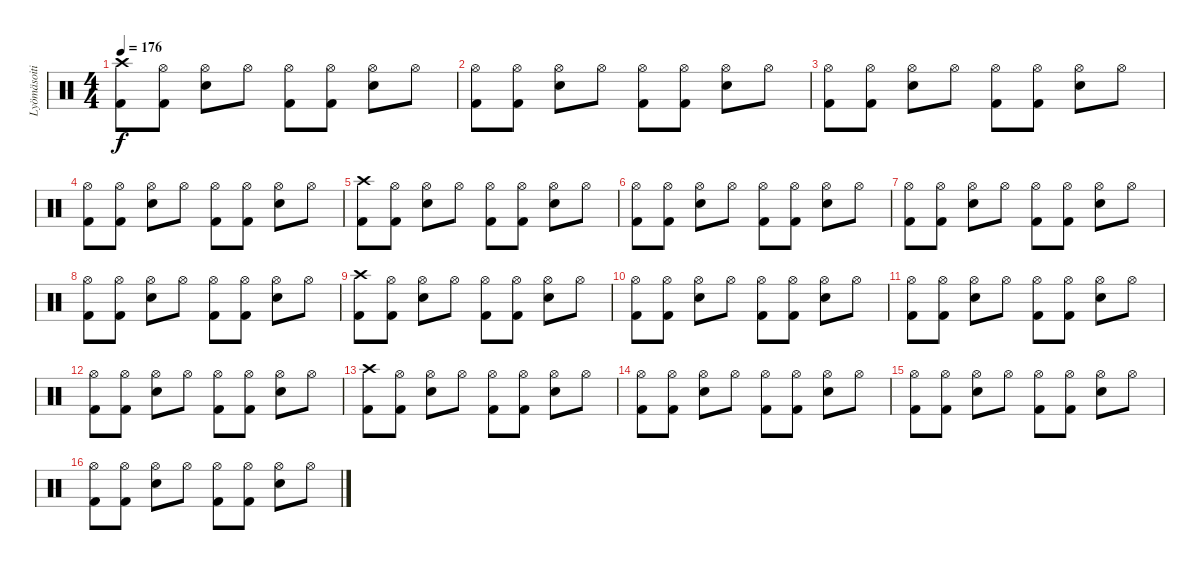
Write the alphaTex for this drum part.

\track ("Lyömäsoitin" "Lyömäsoiti") {instrument percussion}
\staff {score}
\articulation defaults
\ts (4 4)
\tempo 176
\clef neutral
\ks c
("Crash high (hit)" "Kick (hit) 2").8{dy f} ("Hi-Hat (open)" "Kick (hit) 2").8 ("Hi-Hat (open)" "Electric Snare (hit)").8 "Hi-Hat (open)".8 ("Hi-Hat (open)" "Kick (hit) 2").8 ("Hi-Hat (open)" "Kick (hit) 2").8 ("Hi-Hat (open)" "Electric Snare (hit)").8 "Hi-Hat (open)".8 |
("Hi-Hat (open)" "Kick (hit) 2").8 ("Hi-Hat (open)" "Kick (hit) 2").8 ("Hi-Hat (open)" "Electric Snare (hit)").8 "Hi-Hat (open)".8 ("Hi-Hat (open)" "Kick (hit) 2").8 ("Hi-Hat (open)" "Kick (hit) 2").8 ("Hi-Hat (open)" "Electric Snare (hit)").8 "Hi-Hat (open)".8 |
("Hi-Hat (open)" "Kick (hit) 2").8 ("Hi-Hat (open)" "Kick (hit) 2").8 ("Hi-Hat (open)" "Electric Snare (hit)").8 "Hi-Hat (open)".8 ("Hi-Hat (open)" "Kick (hit) 2").8 ("Hi-Hat (open)" "Kick (hit) 2").8 ("Hi-Hat (open)" "Electric Snare (hit)").8 "Hi-Hat (open)".8 |
("Hi-Hat (open)" "Kick (hit) 2").8 ("Hi-Hat (open)" "Kick (hit) 2").8 ("Hi-Hat (open)" "Electric Snare (hit)").8 "Hi-Hat (open)".8 ("Hi-Hat (open)" "Kick (hit) 2").8 ("Hi-Hat (open)" "Kick (hit) 2").8 ("Hi-Hat (open)" "Electric Snare (hit)").8 "Hi-Hat (open)".8 |
("Crash high (hit)" "Kick (hit) 2").8 ("Hi-Hat (open)" "Kick (hit) 2").8 ("Hi-Hat (open)" "Electric Snare (hit)").8 "Hi-Hat (open)".8 ("Hi-Hat (open)" "Kick (hit) 2").8 ("Hi-Hat (open)" "Kick (hit) 2").8 ("Hi-Hat (open)" "Electric Snare (hit)").8 "Hi-Hat (open)".8 |
("Hi-Hat (open)" "Kick (hit) 2").8 ("Hi-Hat (open)" "Kick (hit) 2").8 ("Hi-Hat (open)" "Electric Snare (hit)").8 "Hi-Hat (open)".8 ("Hi-Hat (open)" "Kick (hit) 2").8 ("Hi-Hat (open)" "Kick (hit) 2").8 ("Hi-Hat (open)" "Electric Snare (hit)").8 "Hi-Hat (open)".8 |
("Hi-Hat (open)" "Kick (hit) 2").8 ("Hi-Hat (open)" "Kick (hit) 2").8 ("Hi-Hat (open)" "Electric Snare (hit)").8 "Hi-Hat (open)".8 ("Hi-Hat (open)" "Kick (hit) 2").8 ("Hi-Hat (open)" "Kick (hit) 2").8 ("Hi-Hat (open)" "Electric Snare (hit)").8 "Hi-Hat (open)".8 |
("Hi-Hat (open)" "Kick (hit) 2").8 ("Hi-Hat (open)" "Kick (hit) 2").8 ("Hi-Hat (open)" "Electric Snare (hit)").8 "Hi-Hat (open)".8 ("Hi-Hat (open)" "Kick (hit) 2").8 ("Hi-Hat (open)" "Kick (hit) 2").8 ("Hi-Hat (open)" "Electric Snare (hit)").8 "Hi-Hat (open)".8 |
("Crash high (hit)" "Kick (hit) 2").8 ("Hi-Hat (open)" "Kick (hit) 2").8 ("Hi-Hat (open)" "Electric Snare (hit)").8 "Hi-Hat (open)".8 ("Hi-Hat (open)" "Kick (hit) 2").8 ("Hi-Hat (open)" "Kick (hit) 2").8 ("Hi-Hat (open)" "Electric Snare (hit)").8 "Hi-Hat (open)".8 |
("Hi-Hat (open)" "Kick (hit) 2").8 ("Hi-Hat (open)" "Kick (hit) 2").8 ("Hi-Hat (open)" "Electric Snare (hit)").8 "Hi-Hat (open)".8 ("Hi-Hat (open)" "Kick (hit) 2").8 ("Hi-Hat (open)" "Kick (hit) 2").8 ("Hi-Hat (open)" "Electric Snare (hit)").8 "Hi-Hat (open)".8 |
("Hi-Hat (open)" "Kick (hit) 2").8 ("Hi-Hat (open)" "Kick (hit) 2").8 ("Hi-Hat (open)" "Electric Snare (hit)").8 "Hi-Hat (open)".8 ("Hi-Hat (open)" "Kick (hit) 2").8 ("Hi-Hat (open)" "Kick (hit) 2").8 ("Hi-Hat (open)" "Electric Snare (hit)").8 "Hi-Hat (open)".8 |
("Hi-Hat (open)" "Kick (hit) 2").8 ("Hi-Hat (open)" "Kick (hit) 2").8 ("Hi-Hat (open)" "Electric Snare (hit)").8 "Hi-Hat (open)".8 ("Hi-Hat (open)" "Kick (hit) 2").8 ("Hi-Hat (open)" "Kick (hit) 2").8 ("Hi-Hat (open)" "Electric Snare (hit)").8 "Hi-Hat (open)".8 |
("Crash high (hit)" "Kick (hit) 2").8 ("Hi-Hat (open)" "Kick (hit) 2").8 ("Hi-Hat (open)" "Electric Snare (hit)").8 "Hi-Hat (open)".8 ("Hi-Hat (open)" "Kick (hit) 2").8 ("Hi-Hat (open)" "Kick (hit) 2").8 ("Hi-Hat (open)" "Electric Snare (hit)").8 "Hi-Hat (open)".8 |
("Hi-Hat (open)" "Kick (hit) 2").8 ("Hi-Hat (open)" "Kick (hit) 2").8 ("Hi-Hat (open)" "Electric Snare (hit)").8 "Hi-Hat (open)".8 ("Hi-Hat (open)" "Kick (hit) 2").8 ("Hi-Hat (open)" "Kick (hit) 2").8 ("Hi-Hat (open)" "Electric Snare (hit)").8 "Hi-Hat (open)".8 |
("Hi-Hat (open)" "Kick (hit) 2").8 ("Hi-Hat (open)" "Kick (hit) 2").8 ("Hi-Hat (open)" "Electric Snare (hit)").8 "Hi-Hat (open)".8 ("Hi-Hat (open)" "Kick (hit) 2").8 ("Hi-Hat (open)" "Kick (hit) 2").8 ("Hi-Hat (open)" "Electric Snare (hit)").8 "Hi-Hat (open)".8 |
("Hi-Hat (open)" "Kick (hit) 2").8 ("Hi-Hat (open)" "Kick (hit) 2").8 ("Hi-Hat (open)" "Electric Snare (hit)").8 "Hi-Hat (open)".8 ("Hi-Hat (open)" "Kick (hit) 2").8 ("Hi-Hat (open)" "Kick (hit) 2").8 ("Hi-Hat (open)" "Electric Snare (hit)").8 "Hi-Hat (open)".8
